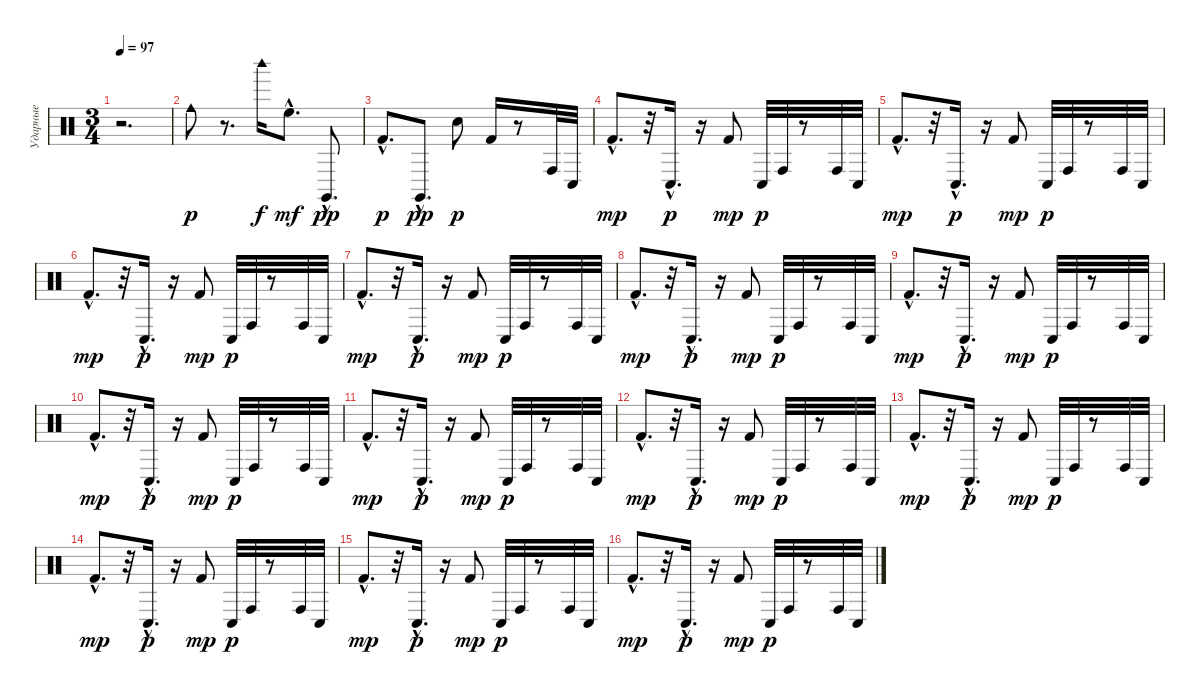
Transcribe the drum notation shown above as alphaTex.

\track ("Ударные" "Ударные") {instrument percussion}
\staff {score}
\articulation defaults
\ts (3 4)
\tempo 97
\clef neutral
\ks c
r.2{d dy p} |
"Cowbell medium (hit)".8 r.8{d} "Woodblock high (hit)".16{dy f} "High Floor Tom (hit)"{hac}.8{d dy mf} "Claves (hit)"{hac}.8{d dy pp} |
"Kick (hit) 2"{hac}.8{d dy p} "Claves (hit)"{hac}.8{d dy pp} "Hand Clap (hit)".8{dy p} "Kick (hit) 2".16 r.8 "Conga high (hit)".32 "Conga low (hit)".32 |
"Kick (hit) 2"{hac}.8{d dy mp} r.32 "Conga low (hit)"{hac}.16{d dy p} r.16 "Kick (hit) 2".8{dy mp} "Conga low (hit)".32{dy p} "Conga high (hit)".32 r.8 "Conga high (hit)".32 "Conga low (hit)".32 |
"Kick (hit) 2"{hac}.8{d dy mp} r.32 "Conga low (hit)"{hac}.16{d dy p} r.16 "Kick (hit) 2".8{dy mp} "Conga low (hit)".32{dy p} "Conga high (hit)".32 r.8 "Conga high (hit)".32 "Conga low (hit)".32 |
"Kick (hit) 2"{hac}.8{d dy mp} r.32 "Conga low (hit)"{hac}.16{d dy p} r.16 "Kick (hit) 2".8{dy mp} "Conga low (hit)".32{dy p} "Conga high (hit)".32 r.8 "Conga high (hit)".32 "Conga low (hit)".32 |
"Kick (hit) 2"{hac}.8{d dy mp} r.32 "Conga low (hit)"{hac}.16{d dy p} r.16 "Kick (hit) 2".8{dy mp} "Conga low (hit)".32{dy p} "Conga high (hit)".32 r.8 "Conga high (hit)".32 "Conga low (hit)".32 |
"Kick (hit) 2"{hac}.8{d dy mp} r.32 "Conga low (hit)"{hac}.16{d dy p} r.16 "Kick (hit) 2".8{dy mp} "Conga low (hit)".32{dy p} "Conga high (hit)".32 r.8 "Conga high (hit)".32 "Conga low (hit)".32 |
"Kick (hit) 2"{hac}.8{d dy mp} r.32 "Conga low (hit)"{hac}.16{d dy p} r.16 "Kick (hit) 2".8{dy mp} "Conga low (hit)".32{dy p} "Conga high (hit)".32 r.8 "Conga high (hit)".32 "Conga low (hit)".32 |
"Kick (hit) 2"{hac}.8{d dy mp} r.32 "Conga low (hit)"{hac}.16{d dy p} r.16 "Kick (hit) 2".8{dy mp} "Conga low (hit)".32{dy p} "Conga high (hit)".32 r.8 "Conga high (hit)".32 "Conga low (hit)".32 |
"Kick (hit) 2"{hac}.8{d dy mp} r.32 "Conga low (hit)"{hac}.16{d dy p} r.16 "Kick (hit) 2".8{dy mp} "Conga low (hit)".32{dy p} "Conga high (hit)".32 r.8 "Conga high (hit)".32 "Conga low (hit)".32 |
"Kick (hit) 2"{hac}.8{d dy mp} r.32 "Conga low (hit)"{hac}.16{d dy p} r.16 "Kick (hit) 2".8{dy mp} "Conga low (hit)".32{dy p} "Conga high (hit)".32 r.8 "Conga high (hit)".32 "Conga low (hit)".32 |
"Kick (hit) 2"{hac}.8{d dy mp} r.32 "Conga low (hit)"{hac}.16{d dy p} r.16 "Kick (hit) 2".8{dy mp} "Conga low (hit)".32{dy p} "Conga high (hit)".32 r.8 "Conga high (hit)".32 "Conga low (hit)".32 |
"Kick (hit) 2"{hac}.8{d dy mp} r.32 "Conga low (hit)"{hac}.16{d dy p} r.16 "Kick (hit) 2".8{dy mp} "Conga low (hit)".32{dy p} "Conga high (hit)".32 r.8 "Conga high (hit)".32 "Conga low (hit)".32 |
"Kick (hit) 2"{hac}.8{d dy mp} r.32 "Conga low (hit)"{hac}.16{d dy p} r.16 "Kick (hit) 2".8{dy mp} "Conga low (hit)".32{dy p} "Conga high (hit)".32 r.8 "Conga high (hit)".32 "Conga low (hit)".32 |
"Kick (hit) 2"{hac}.8{d dy mp} r.32 "Conga low (hit)"{hac}.16{d dy p} r.16 "Kick (hit) 2".8{dy mp} "Conga low (hit)".32{dy p} "Conga high (hit)".32 r.8 "Conga high (hit)".32 "Conga low (hit)".32
